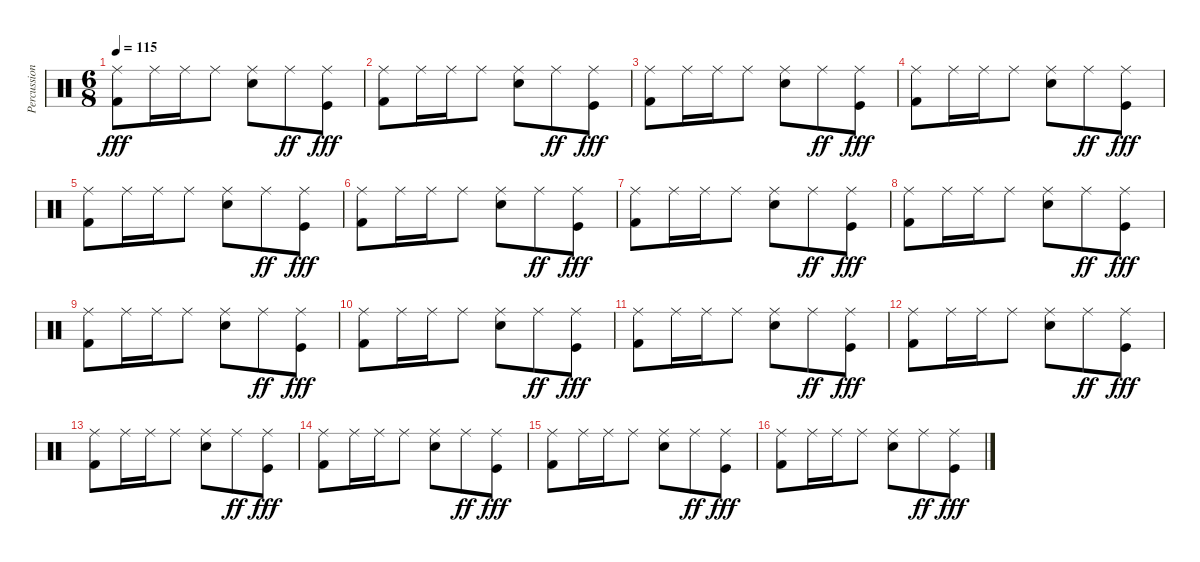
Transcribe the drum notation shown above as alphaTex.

\track ("Percussions" "Percussion") {instrument percussion}
\staff {score}
\articulation defaults
\ts (6 8)
\tempo 115
\clef neutral
\ks c
("Kick (hit) 2" "Ride (middle)").8{dy fff} "Ride (middle)".16 "Ride (middle)".16 "Ride (middle)".8 ("Snare (hit) 2" "Ride (middle)").8 "Ride (middle)".8{dy ff} ("Kick (hit)" "Ride (middle)").8{dy fff} |
("Kick (hit) 2" "Ride (middle)").8 "Ride (middle)".16 "Ride (middle)".16 "Ride (middle)".8 ("Snare (hit) 2" "Ride (middle)").8 "Ride (middle)".8{dy ff} ("Kick (hit)" "Ride (middle)").8{dy fff} |
("Kick (hit) 2" "Ride (middle)").8 "Ride (middle)".16 "Ride (middle)".16 "Ride (middle)".8 ("Snare (hit) 2" "Ride (middle)").8 "Ride (middle)".8{dy ff} ("Kick (hit)" "Ride (middle)").8{dy fff} |
("Kick (hit) 2" "Ride (middle)").8 "Ride (middle)".16 "Ride (middle)".16 "Ride (middle)".8 ("Snare (hit) 2" "Ride (middle)").8 "Ride (middle)".8{dy ff} ("Kick (hit)" "Ride (middle)").8{dy fff} |
("Kick (hit) 2" "Ride (middle)").8 "Ride (middle)".16 "Ride (middle)".16 "Ride (middle)".8 ("Snare (hit) 2" "Ride (middle)").8 "Ride (middle)".8{dy ff} ("Kick (hit)" "Ride (middle)").8{dy fff} |
("Kick (hit) 2" "Ride (middle)").8 "Ride (middle)".16 "Ride (middle)".16 "Ride (middle)".8 ("Snare (hit) 2" "Ride (middle)").8 "Ride (middle)".8{dy ff} ("Kick (hit)" "Ride (middle)").8{dy fff} |
("Kick (hit) 2" "Ride (middle)").8 "Ride (middle)".16 "Ride (middle)".16 "Ride (middle)".8 ("Snare (hit) 2" "Ride (middle)").8 "Ride (middle)".8{dy ff} ("Kick (hit)" "Ride (middle)").8{dy fff} |
("Kick (hit) 2" "Ride (middle)").8 "Ride (middle)".16 "Ride (middle)".16 "Ride (middle)".8 ("Snare (hit) 2" "Ride (middle)").8 "Ride (middle)".8{dy ff} ("Kick (hit)" "Ride (middle)").8{dy fff} |
("Kick (hit) 2" "Ride (middle)").8 "Ride (middle)".16 "Ride (middle)".16 "Ride (middle)".8 ("Snare (hit) 2" "Ride (middle)").8 "Ride (middle)".8{dy ff} ("Kick (hit)" "Ride (middle)").8{dy fff} |
("Kick (hit) 2" "Ride (middle)").8 "Ride (middle)".16 "Ride (middle)".16 "Ride (middle)".8 ("Snare (hit) 2" "Ride (middle)").8 "Ride (middle)".8{dy ff} ("Kick (hit)" "Ride (middle)").8{dy fff} |
("Kick (hit) 2" "Ride (middle)").8 "Ride (middle)".16 "Ride (middle)".16 "Ride (middle)".8 ("Snare (hit) 2" "Ride (middle)").8 "Ride (middle)".8{dy ff} ("Kick (hit)" "Ride (middle)").8{dy fff} |
("Kick (hit) 2" "Ride (middle)").8 "Ride (middle)".16 "Ride (middle)".16 "Ride (middle)".8 ("Snare (hit) 2" "Ride (middle)").8 "Ride (middle)".8{dy ff} ("Kick (hit)" "Ride (middle)").8{dy fff} |
("Kick (hit) 2" "Ride (middle)").8 "Ride (middle)".16 "Ride (middle)".16 "Ride (middle)".8 ("Snare (hit) 2" "Ride (middle)").8 "Ride (middle)".8{dy ff} ("Kick (hit)" "Ride (middle)").8{dy fff} |
("Kick (hit) 2" "Ride (middle)").8 "Ride (middle)".16 "Ride (middle)".16 "Ride (middle)".8 ("Snare (hit) 2" "Ride (middle)").8 "Ride (middle)".8{dy ff} ("Kick (hit)" "Ride (middle)").8{dy fff} |
("Kick (hit) 2" "Ride (middle)").8 "Ride (middle)".16 "Ride (middle)".16 "Ride (middle)".8 ("Snare (hit) 2" "Ride (middle)").8 "Ride (middle)".8{dy ff} ("Kick (hit)" "Ride (middle)").8{dy fff} |
("Kick (hit) 2" "Ride (middle)").8 "Ride (middle)".16 "Ride (middle)".16 "Ride (middle)".8 ("Snare (hit) 2" "Ride (middle)").8 "Ride (middle)".8{dy ff} ("Kick (hit)" "Ride (middle)").8{dy fff}
